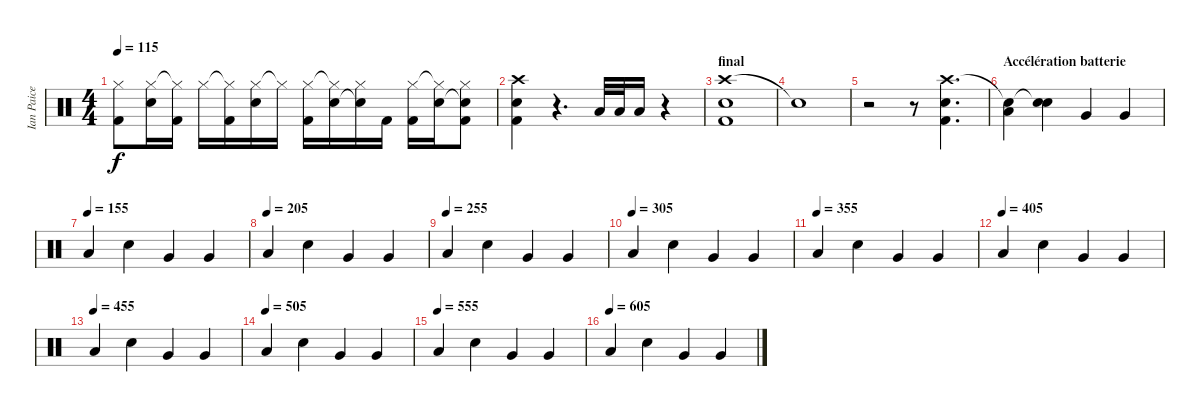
\track ("Ian Paice" "Ian Paice") {instrument percussion}
\staff {score}
\articulation defaults
\ts (4 4)
\tempo 115
\clef neutral
\ks c
("Hi-Hat (closed)" "Kick (hit) 2").8{dy f} ("Hi-Hat (closed)" "Snare (hit) 2").16 ("Hi-Hat (closed)"{t} "Kick (hit) 2").16 "Hi-Hat (closed)".16 ("Hi-Hat (closed)"{t} "Kick (hit) 2").16 ("Hi-Hat (closed)" "Snare (hit) 2").16 "Hi-Hat (closed)"{t}.16 ("Hi-Hat (closed)" "Kick (hit) 2").16 ("Hi-Hat (closed)"{t} "Snare (hit) 2").16 ("Hi-Hat (closed)" "Snare (hit) 2"{t}).16 "Kick (hit) 2".16 ("Hi-Hat (closed)" "Kick (hit) 2").16 ("Hi-Hat (closed)"{t} "Snare (hit) 2").16 ("Hi-Hat (closed)" "Snare (hit) 2"{t} "Kick (hit) 2").8 |
("Crash high (hit)" "Snare (hit) 2" "Kick (hit) 2").4 r.4{d} "Low Floor Tom (hit)".32 "Low Floor Tom (hit)".32 "Low Floor Tom (hit)".16 r.4 |
\section ("" "final")
("Crash high (hit)" "Snare (hit) 2" "Kick (hit) 2").1 |
"Snare (hit)"{t}.1 |
r.2 r.8 ("Crash high (hit)" "Snare (hit) 2" "Kick (hit) 2").4{d} |
\section ("" "Accélération batterie")
("Snare (hit)"{t} "Low Floor Tom (hit)").4 ("Snare (hit)"{t} "Snare (hit) 2").4 "Very Low Tom (hit)".4 "Very Low Tom (hit)".4 |
\tempo (155)
"Low Floor Tom (hit)".4 "Snare (hit) 2".4 "Very Low Tom (hit)".4 "Very Low Tom (hit)".4 |
\tempo (205)
"Low Floor Tom (hit)".4 "Snare (hit) 2".4 "Very Low Tom (hit)".4 "Very Low Tom (hit)".4 |
\tempo (255)
"Low Floor Tom (hit)".4 "Snare (hit) 2".4 "Very Low Tom (hit)".4 "Very Low Tom (hit)".4 |
\tempo (305)
"Low Floor Tom (hit)".4 "Snare (hit) 2".4 "Very Low Tom (hit)".4 "Very Low Tom (hit)".4 |
\tempo (355)
"Low Floor Tom (hit)".4 "Snare (hit) 2".4 "Very Low Tom (hit)".4 "Very Low Tom (hit)".4 |
\tempo (405)
"Low Floor Tom (hit)".4 "Snare (hit) 2".4 "Very Low Tom (hit)".4 "Very Low Tom (hit)".4 |
\tempo (455)
"Low Floor Tom (hit)".4 "Snare (hit) 2".4 "Very Low Tom (hit)".4 "Very Low Tom (hit)".4 |
\tempo (505)
"Low Floor Tom (hit)".4 "Snare (hit) 2".4 "Very Low Tom (hit)".4 "Very Low Tom (hit)".4 |
\tempo (555)
"Low Floor Tom (hit)".4 "Snare (hit) 2".4 "Very Low Tom (hit)".4 "Very Low Tom (hit)".4 |
\tempo (605)
"Low Floor Tom (hit)".4 "Snare (hit) 2".4 "Very Low Tom (hit)".4 "Very Low Tom (hit)".4
